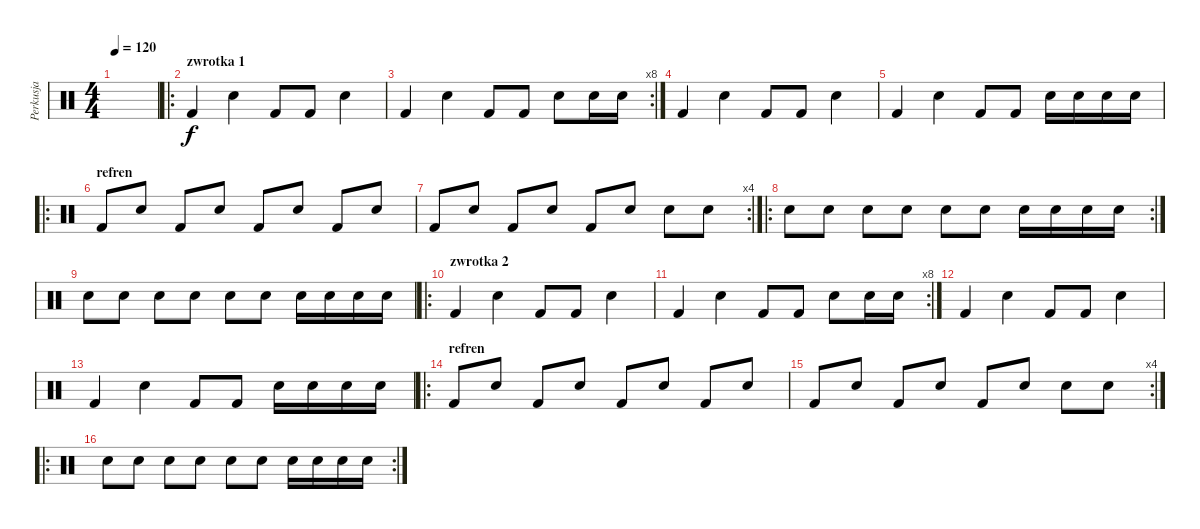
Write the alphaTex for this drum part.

\track ("Perkusja" "Perkusja") {instrument percussion}
\staff {score}
\articulation defaults
\ts (4 4)
\tempo 120
\clef neutral
\ks c
|
\ro
\section ("" "zwrotka 1")
"Kick (hit) 2".4 "Electric Snare (hit)".4 "Kick (hit) 2".8 "Kick (hit) 2".8 "Electric Snare (hit)".4 |
\rc 8 "Kick (hit) 2".4 "Electric Snare (hit)".4 "Kick (hit) 2".8 "Kick (hit) 2".8 "Electric Snare (hit)".8 "Electric Snare (hit)".16 "Electric Snare (hit)".16
|
"Kick (hit) 2".4 "Electric Snare (hit)".4 "Kick (hit) 2".8 "Kick (hit) 2".8 "Electric Snare (hit)".4 |
"Kick (hit) 2".4 "Electric Snare (hit)".4 "Kick (hit) 2".8 "Kick (hit) 2".8 "Electric Snare (hit)".16 "Electric Snare (hit)".16 "Electric Snare (hit)".16 "Electric Snare (hit)".16 |
\ro
\section ("" "refren")
"Kick (hit) 2".8 "Electric Snare (hit)".8 "Kick (hit) 2".8 "Electric Snare (hit)".8 "Kick (hit) 2".8 "Electric Snare (hit)".8 "Kick (hit) 2".8 "Electric Snare (hit)".8 |
\rc 4 "Kick (hit) 2".8 "Electric Snare (hit)".8 "Kick (hit) 2".8 "Electric Snare (hit)".8 "Kick (hit) 2".8 "Electric Snare (hit)".8 "Electric Snare (hit)".8 "Electric Snare (hit)".8
|
\ro
\rc 2 "Electric Snare (hit)".8 "Electric Snare (hit)".8 "Electric Snare (hit)".8 "Electric Snare (hit)".8 "Electric Snare (hit)".8 "Electric Snare (hit)".8 "Electric Snare (hit)".16 "Electric Snare (hit)".16 "Electric Snare (hit)".16 "Electric Snare (hit)".16
|
"Electric Snare (hit)".8 "Electric Snare (hit)".8 "Electric Snare (hit)".8 "Electric Snare (hit)".8 "Electric Snare (hit)".8 "Electric Snare (hit)".8 "Electric Snare (hit)".16 "Electric Snare (hit)".16 "Electric Snare (hit)".16 "Electric Snare (hit)".16 |
\ro
\section ("" "zwrotka 2")
"Kick (hit) 2".4 "Electric Snare (hit)".4 "Kick (hit) 2".8 "Kick (hit) 2".8 "Electric Snare (hit)".4 |
\rc 8 "Kick (hit) 2".4 "Electric Snare (hit)".4 "Kick (hit) 2".8 "Kick (hit) 2".8 "Electric Snare (hit)".8 "Electric Snare (hit)".16 "Electric Snare (hit)".16
|
"Kick (hit) 2".4 "Electric Snare (hit)".4 "Kick (hit) 2".8 "Kick (hit) 2".8 "Electric Snare (hit)".4 |
"Kick (hit) 2".4 "Electric Snare (hit)".4 "Kick (hit) 2".8 "Kick (hit) 2".8 "Electric Snare (hit)".16 "Electric Snare (hit)".16 "Electric Snare (hit)".16 "Electric Snare (hit)".16 |
\ro
\section ("" "refren")
"Kick (hit) 2".8 "Electric Snare (hit)".8 "Kick (hit) 2".8 "Electric Snare (hit)".8 "Kick (hit) 2".8 "Electric Snare (hit)".8 "Kick (hit) 2".8 "Electric Snare (hit)".8 |
\rc 4 "Kick (hit) 2".8 "Electric Snare (hit)".8 "Kick (hit) 2".8 "Electric Snare (hit)".8 "Kick (hit) 2".8 "Electric Snare (hit)".8 "Electric Snare (hit)".8 "Electric Snare (hit)".8
|
\ro
\rc 2 "Electric Snare (hit)".8 "Electric Snare (hit)".8 "Electric Snare (hit)".8 "Electric Snare (hit)".8 "Electric Snare (hit)".8 "Electric Snare (hit)".8 "Electric Snare (hit)".16 "Electric Snare (hit)".16 "Electric Snare (hit)".16 "Electric Snare (hit)".16
